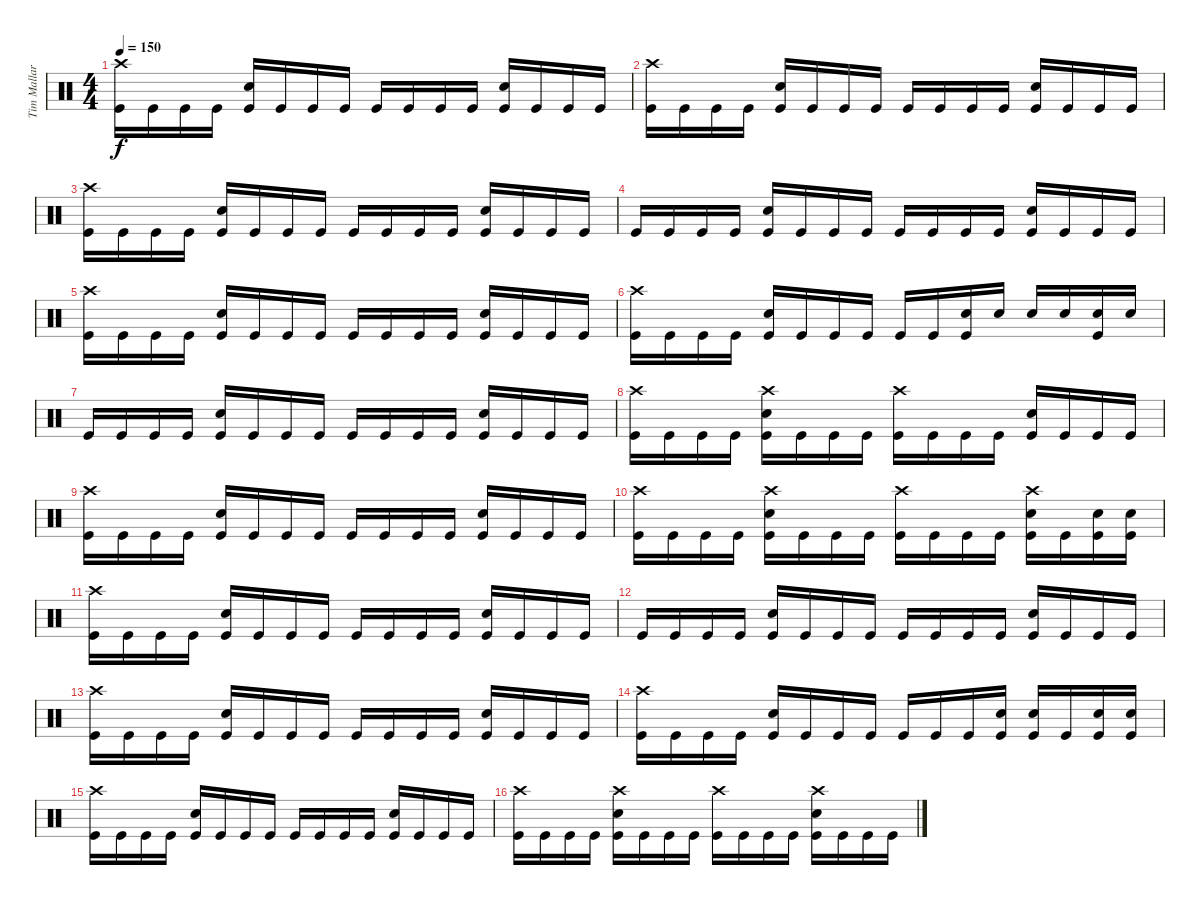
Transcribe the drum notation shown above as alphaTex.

\track ("Tim Mallare-Drums" "Tim Mallar") {instrument percussion}
\staff {score}
\articulation defaults
\ts (4 4)
\tempo 150
\clef neutral
\ks c
("Crash high (hit)" "Kick (hit)").16{dy f} "Kick (hit)".16 "Kick (hit)".16 "Kick (hit)".16 ("Electric Snare (hit)" "Kick (hit)").16 "Kick (hit)".16 "Kick (hit)".16 "Kick (hit)".16 "Kick (hit)".16 "Kick (hit)".16 "Kick (hit)".16 "Kick (hit)".16 ("Electric Snare (hit)" "Kick (hit)").16 "Kick (hit)".16 "Kick (hit)".16 "Kick (hit)".16 |
("Crash high (hit)" "Kick (hit)").16 "Kick (hit)".16 "Kick (hit)".16 "Kick (hit)".16 ("Electric Snare (hit)" "Kick (hit)").16 "Kick (hit)".16 "Kick (hit)".16 "Kick (hit)".16 "Kick (hit)".16 "Kick (hit)".16 "Kick (hit)".16 "Kick (hit)".16 ("Electric Snare (hit)" "Kick (hit)").16 "Kick (hit)".16 "Kick (hit)".16 "Kick (hit)".16 |
("Crash high (hit)" "Kick (hit)").16 "Kick (hit)".16 "Kick (hit)".16 "Kick (hit)".16 ("Electric Snare (hit)" "Kick (hit)").16 "Kick (hit)".16 "Kick (hit)".16 "Kick (hit)".16 "Kick (hit)".16 "Kick (hit)".16 "Kick (hit)".16 "Kick (hit)".16 ("Electric Snare (hit)" "Kick (hit)").16 "Kick (hit)".16 "Kick (hit)".16 "Kick (hit)".16 |
"Kick (hit)".16 "Kick (hit)".16 "Kick (hit)".16 "Kick (hit)".16 ("Electric Snare (hit)" "Kick (hit)").16 "Kick (hit)".16 "Kick (hit)".16 "Kick (hit)".16 "Kick (hit)".16 "Kick (hit)".16 "Kick (hit)".16 "Kick (hit)".16 ("Electric Snare (hit)" "Kick (hit)").16 "Kick (hit)".16 "Kick (hit)".16 "Kick (hit)".16 |
("Crash high (hit)" "Kick (hit)").16 "Kick (hit)".16 "Kick (hit)".16 "Kick (hit)".16 ("Electric Snare (hit)" "Kick (hit)").16 "Kick (hit)".16 "Kick (hit)".16 "Kick (hit)".16 "Kick (hit)".16 "Kick (hit)".16 "Kick (hit)".16 "Kick (hit)".16 ("Electric Snare (hit)" "Kick (hit)").16 "Kick (hit)".16 "Kick (hit)".16 "Kick (hit)".16 |
("Crash high (hit)" "Kick (hit)").16 "Kick (hit)".16 "Kick (hit)".16 "Kick (hit)".16 ("Electric Snare (hit)" "Kick (hit)").16 "Kick (hit)".16 "Kick (hit)".16 "Kick (hit)".16 "Kick (hit)".16 "Kick (hit)".16 ("Electric Snare (hit)" "Kick (hit)").16 "Electric Snare (hit)".16 "Electric Snare (hit)".16 "Electric Snare (hit)".16 ("Electric Snare (hit)" "Kick (hit)").16 "Electric Snare (hit)".16 |
"Kick (hit)".16 "Kick (hit)".16 "Kick (hit)".16 "Kick (hit)".16 ("Electric Snare (hit)" "Kick (hit)").16 "Kick (hit)".16 "Kick (hit)".16 "Kick (hit)".16 "Kick (hit)".16 "Kick (hit)".16 "Kick (hit)".16 "Kick (hit)".16 ("Electric Snare (hit)" "Kick (hit)").16 "Kick (hit)".16 "Kick (hit)".16 "Kick (hit)".16 |
("Crash high (hit)" "Kick (hit)").16 "Kick (hit)".16 "Kick (hit)".16 "Kick (hit)".16 ("Crash high (hit)" "Electric Snare (hit)" "Kick (hit)").16 "Kick (hit)".16 "Kick (hit)".16 "Kick (hit)".16 ("Crash high (hit)" "Kick (hit)").16 "Kick (hit)".16 "Kick (hit)".16 "Kick (hit)".16 ("Electric Snare (hit)" "Kick (hit)").16 "Kick (hit)".16 "Kick (hit)".16 "Kick (hit)".16 |
("Crash high (hit)" "Kick (hit)").16 "Kick (hit)".16 "Kick (hit)".16 "Kick (hit)".16 ("Electric Snare (hit)" "Kick (hit)").16 "Kick (hit)".16 "Kick (hit)".16 "Kick (hit)".16 "Kick (hit)".16 "Kick (hit)".16 "Kick (hit)".16 "Kick (hit)".16 ("Electric Snare (hit)" "Kick (hit)").16 "Kick (hit)".16 "Kick (hit)".16 "Kick (hit)".16 |
("Crash high (hit)" "Kick (hit)").16 "Kick (hit)".16 "Kick (hit)".16 "Kick (hit)".16 ("Crash high (hit)" "Electric Snare (hit)" "Kick (hit)").16 "Kick (hit)".16 "Kick (hit)".16 "Kick (hit)".16 ("Crash high (hit)" "Kick (hit)").16 "Kick (hit)".16 "Kick (hit)".16 "Kick (hit)".16 ("Crash high (hit)" "Electric Snare (hit)" "Kick (hit)").16 "Kick (hit)".16 ("Electric Snare (hit)" "Kick (hit)").16 ("Electric Snare (hit)" "Kick (hit)").16 |
("Crash high (hit)" "Kick (hit)").16 "Kick (hit)".16 "Kick (hit)".16 "Kick (hit)".16 ("Electric Snare (hit)" "Kick (hit)").16 "Kick (hit)".16 "Kick (hit)".16 "Kick (hit)".16 "Kick (hit)".16 "Kick (hit)".16 "Kick (hit)".16 "Kick (hit)".16 ("Electric Snare (hit)" "Kick (hit)").16 "Kick (hit)".16 "Kick (hit)".16 "Kick (hit)".16 |
"Kick (hit)".16 "Kick (hit)".16 "Kick (hit)".16 "Kick (hit)".16 ("Electric Snare (hit)" "Kick (hit)").16 "Kick (hit)".16 "Kick (hit)".16 "Kick (hit)".16 "Kick (hit)".16 "Kick (hit)".16 "Kick (hit)".16 "Kick (hit)".16 ("Electric Snare (hit)" "Kick (hit)").16 "Kick (hit)".16 "Kick (hit)".16 "Kick (hit)".16 |
("Crash high (hit)" "Kick (hit)").16 "Kick (hit)".16 "Kick (hit)".16 "Kick (hit)".16 ("Electric Snare (hit)" "Kick (hit)").16 "Kick (hit)".16 "Kick (hit)".16 "Kick (hit)".16 "Kick (hit)".16 "Kick (hit)".16 "Kick (hit)".16 "Kick (hit)".16 ("Electric Snare (hit)" "Kick (hit)").16 "Kick (hit)".16 "Kick (hit)".16 "Kick (hit)".16 |
("Crash high (hit)" "Kick (hit)").16 "Kick (hit)".16 "Kick (hit)".16 "Kick (hit)".16 ("Electric Snare (hit)" "Kick (hit)").16 "Kick (hit)".16 "Kick (hit)".16 "Kick (hit)".16 "Kick (hit)".16 "Kick (hit)".16 "Kick (hit)".16 ("Electric Snare (hit)" "Kick (hit)").16 ("Electric Snare (hit)" "Kick (hit)").16 "Kick (hit)".16 ("Electric Snare (hit)" "Kick (hit)").16 ("Electric Snare (hit)" "Kick (hit)").16 |
("Crash high (hit)" "Kick (hit)").16 "Kick (hit)".16 "Kick (hit)".16 "Kick (hit)".16 ("Electric Snare (hit)" "Kick (hit)").16 "Kick (hit)".16 "Kick (hit)".16 "Kick (hit)".16 "Kick (hit)".16 "Kick (hit)".16 "Kick (hit)".16 "Kick (hit)".16 ("Electric Snare (hit)" "Kick (hit)").16 "Kick (hit)".16 "Kick (hit)".16 "Kick (hit)".16 |
("Crash high (hit)" "Kick (hit)").16 "Kick (hit)".16 "Kick (hit)".16 "Kick (hit)".16 ("Crash high (hit)" "Electric Snare (hit)" "Kick (hit)").16 "Kick (hit)".16 "Kick (hit)".16 "Kick (hit)".16 ("Crash high (hit)" "Kick (hit)").16 "Kick (hit)".16 "Kick (hit)".16 "Kick (hit)".16 ("Crash high (hit)" "Electric Snare (hit)" "Kick (hit)").16 "Kick (hit)".16 "Kick (hit)".16 "Kick (hit)".16
